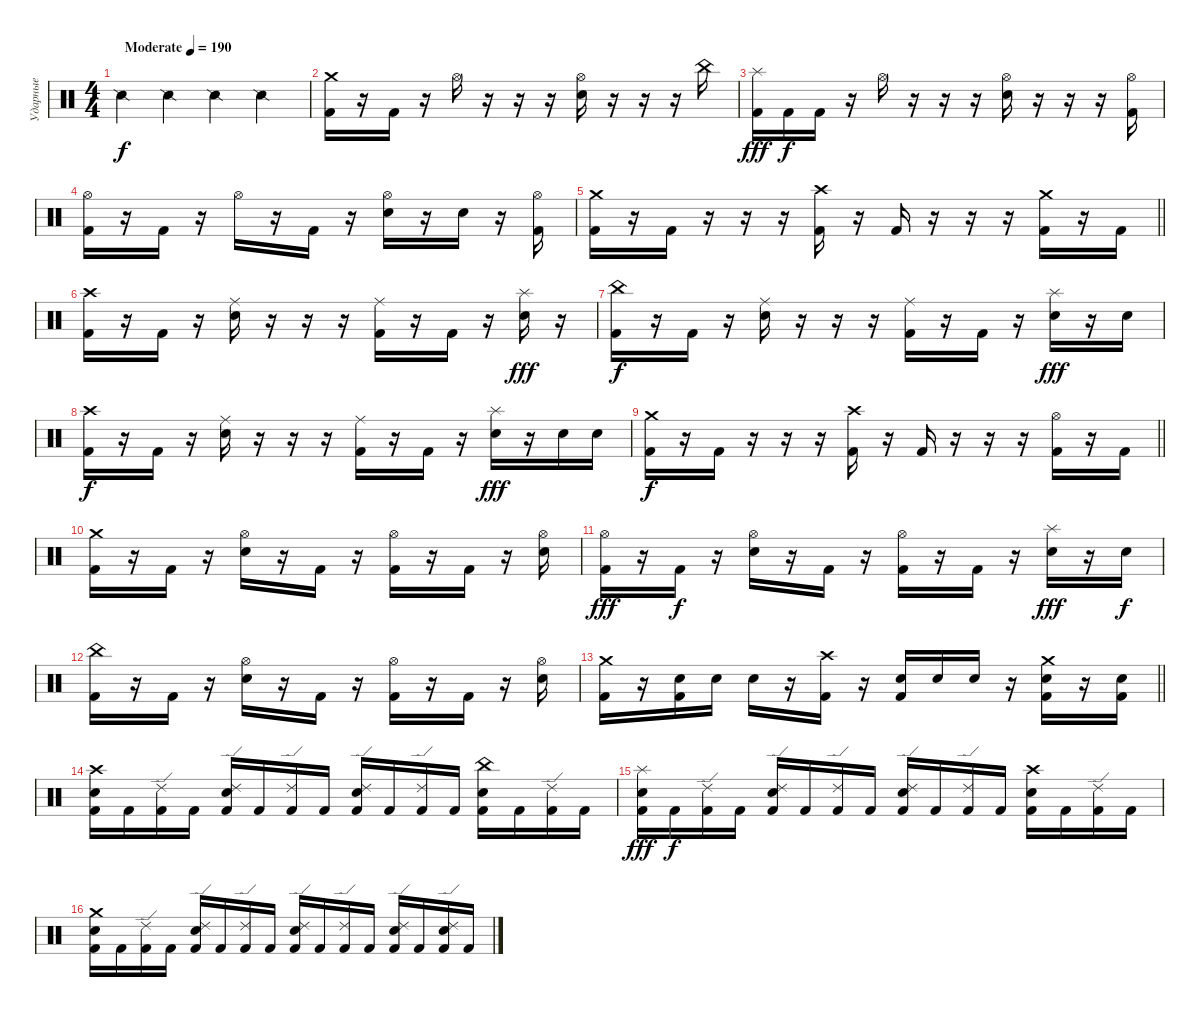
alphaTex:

\track ("Ударные" "Ударные") {instrument percussion}
\staff {score}
\articulation defaults
\ts (4 4)
\tempo (190 "Moderate")
\clef neutral
\ks c "Snare (side stick) 2".4{dy f} "Snare (side stick) 2".4 "Snare (side stick) 2".4 "Snare (side stick) 2".4
|
("Crash medium (hit)" "Kick (hit) 2").16 r.16 "Kick (hit) 2".16 r.16 "Hi-Hat (open)".16 r.16 r.16 r.16 ("Hi-Hat (open)" "Snare (hit) 2").16 r.16 r.16 r.16 "China (hit)".16 |
("Splash (hit)" "Kick (hit) 2").16{dy fff} "Kick (hit) 2".16{dy f} "Kick (hit) 2".16 r.16 "Hi-Hat (open)".16 r.16 r.16 r.16 ("Hi-Hat (open)" "Snare (hit) 2").16 r.16 r.16 r.16 ("Hi-Hat (open)" "Kick (hit) 2").16 |
("Hi-Hat (open)" "Kick (hit) 2").16 r.16 "Kick (hit) 2".16 r.16 "Hi-Hat (open)".16 r.16 "Kick (hit) 2".16 r.16 ("Hi-Hat (open)" "Snare (hit) 2").16 r.16 "Snare (hit) 2".16 r.16 ("Hi-Hat (open)" "Kick (hit) 2").16 |
\barLineRight lightlight
("Crash medium (hit)" "Kick (hit) 2").16 r.16 "Kick (hit) 2".16 r.16 r.16 r.16 ("Crash high (hit)" "Kick (hit) 2").16 r.16 "Kick (hit) 2".16 r.16 r.16 r.16 ("Crash medium (hit)" "Kick (hit) 2").16 r.16 "Kick (hit) 2".16 |
("Crash high (hit)" "Kick (hit) 2").16 r.16 "Kick (hit) 2".16 r.16 ("Ride (middle)" "Snare (hit) 2").16 r.16 r.16 r.16 ("Ride (middle)" "Kick (hit) 2").16 r.16 "Kick (hit) 2".16 r.16 ("Splash (hit)" "Snare (hit) 2").16{dy fff} r.16 |
("China (hit)" "Kick (hit) 2").16{dy f} r.16 "Kick (hit) 2".16 r.16 ("Ride (middle)" "Snare (hit) 2").16 r.16 r.16 r.16 ("Ride (middle)" "Kick (hit) 2").16 r.16 "Kick (hit) 2".16 r.16 ("Splash (hit)" "Snare (hit) 2").16{dy fff} r.16 "Snare (hit) 2".16 |
("Crash high (hit)" "Kick (hit) 2").16{dy f} r.16 "Kick (hit) 2".16 r.16 ("Ride (middle)" "Snare (hit) 2").16 r.16 r.16 r.16 ("Ride (middle)" "Kick (hit) 2").16 r.16 "Kick (hit) 2".16 r.16 ("Splash (hit)" "Snare (hit) 2").16{dy fff} r.16 "Snare (hit) 2".16 "Snare (hit) 2".16 |
\barLineRight lightlight
("Crash medium (hit)" "Kick (hit) 2").16{dy f} r.16 "Kick (hit) 2".16 r.16 r.16 r.16 ("Crash high (hit)" "Kick (hit) 2").16 r.16 "Kick (hit) 2".16 r.16 r.16 r.16 ("Hi-Hat (open)" "Kick (hit) 2").16 r.16 "Kick (hit) 2".16 |
("Crash medium (hit)" "Kick (hit) 2").16 r.16 "Kick (hit) 2".16 r.16 ("Hi-Hat (open)" "Snare (hit) 2").16 r.16 "Kick (hit) 2".16 r.16 ("Hi-Hat (open)" "Kick (hit) 2").16 r.16 "Kick (hit) 2".16 r.16 ("Hi-Hat (open)" "Snare (hit) 2").16 |
("Hi-Hat (open)" "Kick (hit) 2").16{dy fff} r.16 "Kick (hit) 2".16{dy f} r.16 ("Hi-Hat (open)" "Snare (hit) 2").16 r.16 "Kick (hit) 2".16 r.16 ("Hi-Hat (open)" "Kick (hit) 2").16 r.16 "Kick (hit) 2".16 r.16 ("Splash (hit)" "Snare (hit) 2").16{dy fff} r.16 "Snare (hit) 2".16{dy f} |
("China (hit)" "Kick (hit) 2").16 r.16 "Kick (hit) 2".16 r.16 ("Hi-Hat (open)" "Snare (hit) 2").16 r.16 "Kick (hit) 2".16 r.16 ("Hi-Hat (open)" "Kick (hit) 2").16 r.16 "Kick (hit) 2".16 r.16 ("Hi-Hat (open)" "Snare (hit) 2").16 |
\barLineRight lightlight
("Crash medium (hit)" "Kick (hit) 2").16 r.16 ("Snare (hit) 2" "Kick (hit) 2").16 "Snare (hit) 2".16 "Snare (hit) 2".16 r.16 ("Crash high (hit)" "Kick (hit) 2").16 r.16 ("Snare (hit) 2" "Kick (hit) 2").16 "Snare (hit) 2".16 "Snare (hit) 2".16 r.16 ("Crash medium (hit)" "Snare (hit) 2" "Kick (hit) 2").16 r.16 ("Snare (hit) 2" "Kick (hit) 2").16 |
("Crash high (hit)" "Snare (hit) 2" "Kick (hit) 2").16 "Kick (hit) 2".16 ("Ride (edge) 2" "Kick (hit) 2").16 "Kick (hit) 2".16 ("Ride (edge) 2" "Snare (hit) 2" "Kick (hit) 2").16 "Kick (hit) 2".16 ("Ride (edge) 2" "Kick (hit) 2").16 "Kick (hit) 2".16 ("Ride (edge) 2" "Snare (hit) 2" "Kick (hit) 2").16 "Kick (hit) 2".16 ("Ride (edge) 2" "Kick (hit) 2").16 "Kick (hit) 2".16 ("China (hit)" "Snare (hit) 2" "Kick (hit) 2").16 "Kick (hit) 2".16 ("Ride (edge) 2" "Kick (hit) 2").16 "Kick (hit) 2".16 |
("Splash (hit)" "Snare (hit) 2" "Kick (hit) 2").16{dy fff} "Kick (hit) 2".16{dy f} ("Ride (edge) 2" "Kick (hit) 2").16 "Kick (hit) 2".16 ("Ride (edge) 2" "Snare (hit) 2" "Kick (hit) 2").16 "Kick (hit) 2".16 ("Ride (edge) 2" "Kick (hit) 2").16 "Kick (hit) 2".16 ("Ride (edge) 2" "Snare (hit) 2" "Kick (hit) 2").16 "Kick (hit) 2".16 ("Ride (edge) 2" "Kick (hit) 2").16 "Kick (hit) 2".16 ("Crash high (hit)" "Snare (hit) 2" "Kick (hit) 2").16 "Kick (hit) 2".16 ("Ride (edge) 2" "Kick (hit) 2").16 "Kick (hit) 2".16 |
("Crash medium (hit)" "Snare (hit) 2" "Kick (hit) 2").16 "Kick (hit) 2".16 ("Ride (edge) 2" "Kick (hit) 2").16 "Kick (hit) 2".16 ("Ride (edge) 2" "Snare (hit) 2" "Kick (hit) 2").16 "Kick (hit) 2".16 ("Ride (edge) 2" "Kick (hit) 2").16 "Kick (hit) 2".16 ("Ride (edge) 2" "Snare (hit) 2" "Kick (hit) 2").16 "Kick (hit) 2".16 ("Ride (edge) 2" "Kick (hit) 2").16 "Kick (hit) 2".16 ("Ride (edge) 2" "Snare (hit) 2" "Kick (hit) 2").16 "Kick (hit) 2".16 ("Ride (edge) 2" "Snare (hit) 2" "Kick (hit) 2").16 "Kick (hit) 2".16
